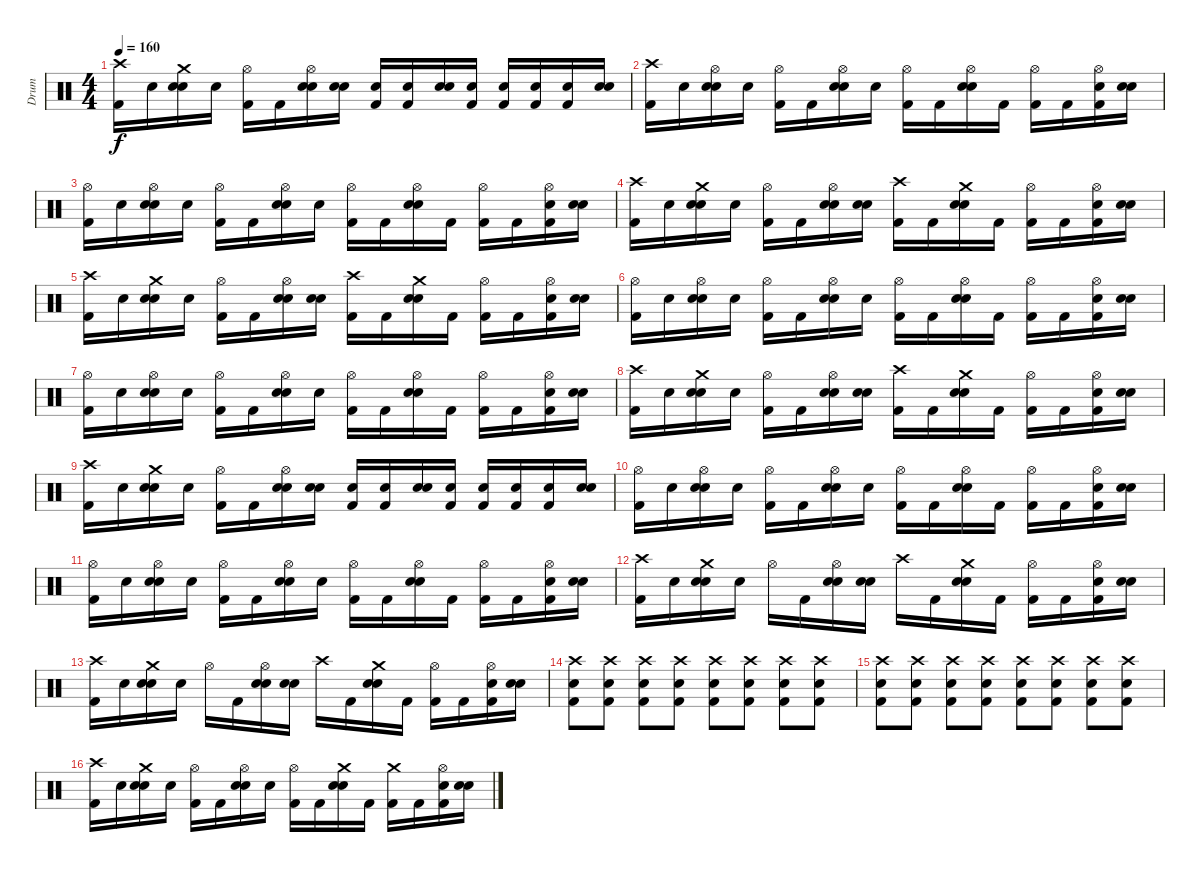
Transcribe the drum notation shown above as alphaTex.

\track ("Drum" "Drum") {instrument percussion}
\staff {score}
\articulation defaults
\ts (4 4)
\tempo 160
\clef neutral
\ks c
("Crash high (hit)" "Kick (hit) 2").16{dy f} "Snare (hit)"{x}.16 ("Crash medium (hit)" "Electric Snare (hit)" "Snare (hit)"{x}).16 "Snare (hit)"{x}.16 ("Hi-Hat (open)" "Kick (hit) 2").16 "Kick (hit) 2".16 ("Hi-Hat (open)" "Electric Snare (hit)" "Snare (hit)"{x}).16 ("Electric Snare (hit)" "Snare (hit)"{x}).16 ("Electric Snare (hit)" "Kick (hit) 2").16 ("Electric Snare (hit)" "Kick (hit) 2").16 ("Electric Snare (hit)" "Snare (hit)"{x}).16 ("Electric Snare (hit)" "Kick (hit) 2").16 ("Electric Snare (hit)" "Kick (hit) 2").16 ("Electric Snare (hit)" "Kick (hit) 2"{x}).16 ("Electric Snare (hit)" "Kick (hit) 2").16 ("Electric Snare (hit)" "Snare (hit)"{x}).16 |
("Crash high (hit)" "Kick (hit) 2").16 "Snare (hit)"{x}.16 ("Hi-Hat (open)" "Electric Snare (hit)" "Snare (hit)"{x}).16 "Snare (hit)"{x}.16 ("Hi-Hat (open)" "Kick (hit) 2").16 "Kick (hit) 2".16 ("Hi-Hat (open)" "Electric Snare (hit)" "Snare (hit)"{x}).16 "Snare (hit)"{x}.16 ("Hi-Hat (open)" "Kick (hit) 2").16 "Kick (hit) 2".16 ("Hi-Hat (open)" "Electric Snare (hit)" "Snare (hit)"{x}).16 "Kick (hit) 2".16 ("Hi-Hat (open)" "Kick (hit) 2"{x}).16 "Kick (hit) 2".16 ("Hi-Hat (open)" "Electric Snare (hit)" "Kick (hit) 2"{x}).16 ("Electric Snare (hit)" "Snare (hit)"{x}).16 |
("Hi-Hat (open)" "Kick (hit) 2").16 "Snare (hit)"{x}.16 ("Hi-Hat (open)" "Electric Snare (hit)" "Snare (hit)"{x}).16 "Snare (hit)"{x}.16 ("Hi-Hat (open)" "Kick (hit) 2").16 "Kick (hit) 2".16 ("Hi-Hat (open)" "Electric Snare (hit)" "Snare (hit)"{x}).16 "Snare (hit)"{x}.16 ("Hi-Hat (open)" "Kick (hit) 2").16 "Kick (hit) 2".16 ("Hi-Hat (open)" "Electric Snare (hit)" "Snare (hit)"{x}).16 "Kick (hit) 2".16 ("Hi-Hat (open)" "Kick (hit) 2"{x}).16 "Kick (hit) 2".16 ("Hi-Hat (open)" "Electric Snare (hit)" "Kick (hit) 2"{x}).16 ("Electric Snare (hit)" "Snare (hit)"{x}).16 |
("Crash high (hit)" "Kick (hit) 2").16 "Snare (hit)"{x}.16 ("Crash medium (hit)" "Electric Snare (hit)" "Snare (hit)"{x}).16 "Snare (hit)"{x}.16 ("Hi-Hat (open)" "Kick (hit) 2").16 "Kick (hit) 2"{x}.16 ("Hi-Hat (open)" "Electric Snare (hit)" "Snare (hit)"{x}).16 ("Electric Snare (hit)" "Snare (hit)"{x}).16 ("Crash high (hit)" "Kick (hit) 2").16 "Kick (hit) 2"{x}.16 ("Crash medium (hit)" "Electric Snare (hit)" "Snare (hit)"{x}).16 "Kick (hit) 2"{x}.16 ("Hi-Hat (open)" "Kick (hit) 2").16 "Kick (hit) 2"{x}.16 ("Hi-Hat (open)" "Electric Snare (hit)" "Kick (hit) 2"{x}).16 ("Electric Snare (hit)" "Snare (hit)"{x}).16 |
("Crash high (hit)" "Kick (hit) 2").16 "Snare (hit)"{x}.16 ("Crash medium (hit)" "Electric Snare (hit)" "Snare (hit)"{x}).16 "Snare (hit)"{x}.16 ("Hi-Hat (open)" "Kick (hit) 2").16 "Kick (hit) 2".16 ("Hi-Hat (open)" "Electric Snare (hit)" "Snare (hit)"{x}).16 ("Electric Snare (hit)" "Snare (hit)"{x}).16 ("Crash high (hit)" "Kick (hit) 2").16 "Kick (hit) 2".16 ("Crash medium (hit)" "Electric Snare (hit)" "Snare (hit)"{x}).16 "Kick (hit) 2".16 ("Hi-Hat (open)" "Kick (hit) 2"{x}).16 "Kick (hit) 2".16 ("Hi-Hat (open)" "Electric Snare (hit)" "Kick (hit) 2"{x}).16 ("Electric Snare (hit)" "Snare (hit)"{x}).16 |
("Hi-Hat (open)" "Kick (hit) 2").16 "Snare (hit)"{x}.16 ("Hi-Hat (open)" "Electric Snare (hit)" "Snare (hit)"{x}).16 "Snare (hit)"{x}.16 ("Hi-Hat (open)" "Kick (hit) 2").16 "Kick (hit) 2".16 ("Hi-Hat (open)" "Electric Snare (hit)" "Snare (hit)"{x}).16 "Snare (hit)"{x}.16 ("Hi-Hat (open)" "Kick (hit) 2").16 "Kick (hit) 2".16 ("Hi-Hat (open)" "Electric Snare (hit)" "Snare (hit)"{x}).16 "Kick (hit) 2".16 ("Hi-Hat (open)" "Kick (hit) 2"{x}).16 "Kick (hit) 2".16 ("Hi-Hat (open)" "Electric Snare (hit)" "Kick (hit) 2"{x}).16 ("Electric Snare (hit)" "Snare (hit)"{x}).16 |
("Hi-Hat (open)" "Kick (hit) 2").16 "Snare (hit)"{x}.16 ("Hi-Hat (open)" "Electric Snare (hit)" "Snare (hit)"{x}).16 "Snare (hit)"{x}.16 ("Hi-Hat (open)" "Kick (hit) 2").16 "Kick (hit) 2".16 ("Hi-Hat (open)" "Electric Snare (hit)" "Snare (hit)"{x}).16 "Snare (hit)"{x}.16 ("Hi-Hat (open)" "Kick (hit) 2").16 "Kick (hit) 2".16 ("Hi-Hat (open)" "Electric Snare (hit)" "Snare (hit)"{x}).16 "Kick (hit) 2".16 ("Hi-Hat (open)" "Kick (hit) 2"{x}).16 "Kick (hit) 2".16 ("Hi-Hat (open)" "Electric Snare (hit)" "Kick (hit) 2"{x}).16 ("Electric Snare (hit)" "Snare (hit)"{x}).16 |
("Crash high (hit)" "Kick (hit) 2").16 "Snare (hit)"{x}.16 ("Crash medium (hit)" "Electric Snare (hit)" "Snare (hit)"{x}).16 "Snare (hit)"{x}.16 ("Hi-Hat (open)" "Kick (hit) 2").16 "Kick (hit) 2"{x}.16 ("Hi-Hat (open)" "Electric Snare (hit)" "Snare (hit)"{x}).16 ("Electric Snare (hit)" "Snare (hit)"{x}).16 ("Crash high (hit)" "Kick (hit) 2").16 "Kick (hit) 2"{x}.16 ("Crash medium (hit)" "Electric Snare (hit)" "Snare (hit)"{x}).16 "Kick (hit) 2"{x}.16 ("Hi-Hat (open)" "Kick (hit) 2").16 "Kick (hit) 2"{x}.16 ("Hi-Hat (open)" "Electric Snare (hit)" "Kick (hit) 2"{x}).16 ("Electric Snare (hit)" "Snare (hit)"{x}).16 |
("Crash high (hit)" "Kick (hit) 2").16 "Snare (hit)"{x}.16 ("Crash medium (hit)" "Electric Snare (hit)" "Snare (hit)"{x}).16 "Snare (hit)"{x}.16 ("Hi-Hat (open)" "Kick (hit) 2").16 "Kick (hit) 2".16 ("Hi-Hat (open)" "Electric Snare (hit)" "Snare (hit)"{x}).16 ("Electric Snare (hit)" "Snare (hit)"{x}).16 ("Electric Snare (hit)" "Kick (hit) 2").16 ("Electric Snare (hit)" "Kick (hit) 2").16 ("Electric Snare (hit)" "Snare (hit)"{x}).16 ("Electric Snare (hit)" "Kick (hit) 2").16 ("Electric Snare (hit)" "Kick (hit) 2").16 ("Electric Snare (hit)" "Kick (hit) 2"{x}).16 ("Electric Snare (hit)" "Kick (hit) 2").16 ("Electric Snare (hit)" "Snare (hit)"{x}).16 |
("Hi-Hat (open)" "Kick (hit) 2").16 "Snare (hit)"{x}.16 ("Hi-Hat (open)" "Electric Snare (hit)" "Snare (hit)"{x}).16 "Snare (hit)"{x}.16 ("Hi-Hat (open)" "Kick (hit) 2").16 "Kick (hit) 2".16 ("Hi-Hat (open)" "Electric Snare (hit)" "Snare (hit)"{x}).16 "Snare (hit)"{x}.16 ("Hi-Hat (open)" "Kick (hit) 2").16 "Kick (hit) 2".16 ("Hi-Hat (open)" "Electric Snare (hit)" "Snare (hit)"{x}).16 "Kick (hit) 2".16 ("Hi-Hat (open)" "Kick (hit) 2"{x}).16 "Kick (hit) 2".16 ("Hi-Hat (open)" "Electric Snare (hit)" "Kick (hit) 2"{x}).16 ("Electric Snare (hit)" "Snare (hit)"{x}).16 |
("Hi-Hat (open)" "Kick (hit) 2").16 "Snare (hit)"{x}.16 ("Hi-Hat (open)" "Electric Snare (hit)" "Snare (hit)"{x}).16 "Snare (hit)"{x}.16 ("Hi-Hat (open)" "Kick (hit) 2").16 "Kick (hit) 2".16 ("Hi-Hat (open)" "Electric Snare (hit)" "Snare (hit)"{x}).16 "Snare (hit)"{x}.16 ("Hi-Hat (open)" "Kick (hit) 2").16 "Kick (hit) 2".16 ("Hi-Hat (open)" "Electric Snare (hit)" "Snare (hit)"{x}).16 "Kick (hit) 2".16 ("Hi-Hat (open)" "Kick (hit) 2"{x}).16 "Kick (hit) 2".16 ("Hi-Hat (open)" "Electric Snare (hit)" "Kick (hit) 2"{x}).16 ("Electric Snare (hit)" "Snare (hit)"{x}).16 |
("Crash high (hit)" "Kick (hit) 2").16 "Snare (hit)"{x}.16 ("Crash medium (hit)" "Electric Snare (hit)" "Snare (hit)"{x}).16 "Snare (hit)"{x}.16 "Hi-Hat (open)".16 "Kick (hit) 2".16 ("Hi-Hat (open)" "Electric Snare (hit)" "Snare (hit)"{x}).16 ("Electric Snare (hit)" "Snare (hit)"{x}).16 "Crash high (hit)".16 "Kick (hit) 2".16 ("Crash medium (hit)" "Electric Snare (hit)" "Snare (hit)"{x}).16 "Kick (hit) 2".16 ("Hi-Hat (open)" "Kick (hit) 2"{x}).16 "Kick (hit) 2".16 ("Hi-Hat (open)" "Electric Snare (hit)" "Kick (hit) 2"{x}).16 ("Electric Snare (hit)" "Snare (hit)"{x}).16 |
("Crash high (hit)" "Kick (hit) 2").16 "Snare (hit)"{x}.16 ("Crash medium (hit)" "Electric Snare (hit)" "Snare (hit)"{x}).16 "Snare (hit)"{x}.16 "Hi-Hat (open)".16 "Kick (hit) 2".16 ("Hi-Hat (open)" "Electric Snare (hit)" "Snare (hit)"{x}).16 ("Electric Snare (hit)" "Snare (hit)"{x}).16 "Crash high (hit)".16 "Kick (hit) 2".16 ("Crash medium (hit)" "Electric Snare (hit)" "Snare (hit)"{x}).16 "Kick (hit) 2".16 ("Hi-Hat (open)" "Kick (hit) 2"{x}).16 "Kick (hit) 2".16 ("Hi-Hat (open)" "Electric Snare (hit)" "Kick (hit) 2"{x}).16 ("Electric Snare (hit)" "Snare (hit)"{x}).16 |
("Crash high (hit)" "Electric Snare (hit)" "Kick (hit) 2").8 ("Crash high (hit)" "Electric Snare (hit)" "Kick (hit) 2").8 ("Crash high (hit)" "Electric Snare (hit)" "Kick (hit) 2").8 ("Crash high (hit)" "Electric Snare (hit)" "Kick (hit) 2").8 ("Crash high (hit)" "Electric Snare (hit)" "Kick (hit) 2").8 ("Crash high (hit)" "Electric Snare (hit)" "Kick (hit) 2").8 ("Crash high (hit)" "Electric Snare (hit)" "Kick (hit) 2").8 ("Crash high (hit)" "Electric Snare (hit)" "Kick (hit) 2").8 |
("Crash high (hit)" "Electric Snare (hit)" "Kick (hit) 2").8 ("Crash high (hit)" "Electric Snare (hit)" "Kick (hit) 2").8 ("Crash high (hit)" "Electric Snare (hit)" "Kick (hit) 2").8 ("Crash high (hit)" "Electric Snare (hit)" "Kick (hit) 2").8 ("Crash high (hit)" "Electric Snare (hit)" "Kick (hit) 2").8 ("Crash high (hit)" "Electric Snare (hit)" "Kick (hit) 2").8 ("Crash high (hit)" "Electric Snare (hit)" "Kick (hit) 2").8 ("Crash high (hit)" "Electric Snare (hit)" "Kick (hit) 2").8 |
("Crash high (hit)" "Kick (hit) 2").16 "Snare (hit)"{x}.16 ("Crash medium (hit)" "Electric Snare (hit)" "Snare (hit)"{x}).16 "Snare (hit)"{x}.16 ("Hi-Hat (open)" "Kick (hit) 2").16 "Kick (hit) 2".16 ("Hi-Hat (open)" "Electric Snare (hit)" "Snare (hit)"{x}).16 "Snare (hit)"{x}.16 ("Hi-Hat (open)" "Kick (hit) 2").16 "Kick (hit) 2".16 ("Crash medium (hit)" "Electric Snare (hit)" "Snare (hit)"{x}).16 "Kick (hit) 2".16 ("Crash medium (hit)" "Kick (hit) 2"{x}).16 "Kick (hit) 2".16 ("Hi-Hat (open)" "Electric Snare (hit)" "Kick (hit) 2"{x}).16 ("Electric Snare (hit)" "Snare (hit)"{x}).16
